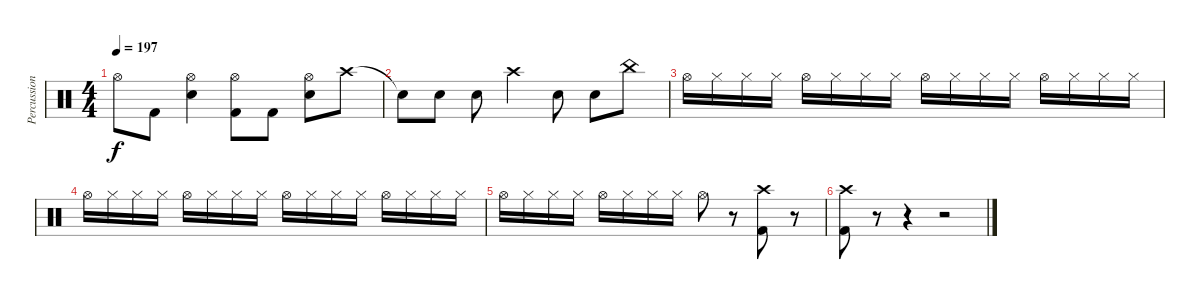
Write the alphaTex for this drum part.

\track ("Percussions" "Percussion") {instrument percussion}
\staff {score}
\articulation defaults
\ts (4 4)
\tempo 197
\clef neutral
\ks c "Hi-Hat (open)".8{dy f} "Kick (hit) 2".8
("Hi-Hat (open)" "Snare (hit) 2").4 ("Hi-Hat (open)" "Kick (hit) 2").8 "Kick (hit) 2".8 ("Hi-Hat (open)" "Snare (hit) 2").8 "Crash high (hit)".8 |
"Snare (hit)"{t}.8 "Snare (hit) 2".8 "Snare (hit) 2".8 "Crash high (hit)".4 "Snare (hit) 2".8 "Snare (hit) 2".8 "China (hit)".8 |
"Hi-Hat (open)".16 "Hi-Hat (closed)".16 "Hi-Hat (closed)".16 "Hi-Hat (closed)".16 "Hi-Hat (open)".16 "Hi-Hat (closed)".16 "Hi-Hat (closed)".16 "Hi-Hat (closed)".16 "Hi-Hat (open)".16 "Hi-Hat (closed)".16 "Hi-Hat (closed)".16 "Hi-Hat (closed)".16 "Hi-Hat (open)".16 "Hi-Hat (closed)".16 "Hi-Hat (closed)".16 "Hi-Hat (closed)".16 |
"Hi-Hat (open)".16 "Hi-Hat (closed)".16 "Hi-Hat (closed)".16 "Hi-Hat (closed)".16 "Hi-Hat (open)".16 "Hi-Hat (closed)".16 "Hi-Hat (closed)".16 "Hi-Hat (closed)".16 "Hi-Hat (open)".16 "Hi-Hat (closed)".16 "Hi-Hat (closed)".16 "Hi-Hat (closed)".16 "Hi-Hat (open)".16 "Hi-Hat (closed)".16 "Hi-Hat (closed)".16 "Hi-Hat (closed)".16 |
"Hi-Hat (open)".16 "Hi-Hat (closed)".16 "Hi-Hat (closed)".16 "Hi-Hat (closed)".16 "Hi-Hat (open)".16 "Hi-Hat (closed)".16 "Hi-Hat (closed)".16 "Hi-Hat (closed)".16 "Hi-Hat (open)".8 r.8 ("Crash high (hit)" "Kick (hit) 2").8 r.8 |
("Crash high (hit)" "Kick (hit) 2").8 r.8 r.4 r.2
